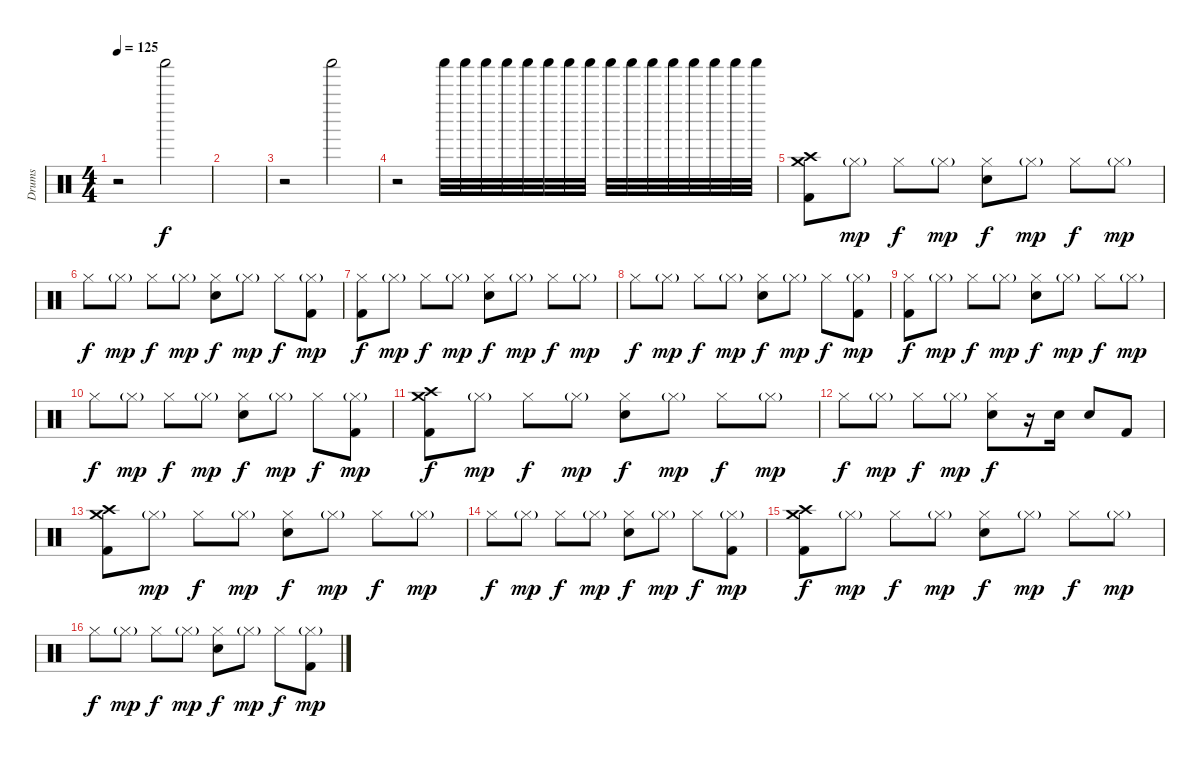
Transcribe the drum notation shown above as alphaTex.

\track ("Drums" "Drums") {instrument percussion}
\staff {score}
\articulation defaults
\ts (4 4)
\tempo 125
\clef neutral
\ks c
r.2{dy f} "Shaker (hit)".2 |
|
r.2 "Shaker (hit)".2 |
r.2 "Shaker (hit)".32 "Shaker (hit)".32 "Shaker (hit)".32 "Shaker (hit)".32 "Shaker (hit)".32 "Shaker (hit)".32 "Shaker (hit)".32 "Shaker (hit)".32 "Shaker (hit)".32 "Shaker (hit)".32 "Shaker (hit)".32 "Shaker (hit)".32 "Shaker (hit)".32 "Shaker (hit)".32 "Shaker (hit)".32 "Shaker (hit)".32 |
("Crash medium (hit)" "Crash high (hit)" "Kick (hit) 2").8 "Hi-Hat (closed)"{g}.8{dy mp} "Hi-Hat (closed)".8{dy f} "Hi-Hat (closed)"{g}.8{dy mp} ("Hi-Hat (closed)" "Electric Snare (hit)").8{dy f} "Hi-Hat (closed)"{g}.8{dy mp} "Hi-Hat (closed)".8{dy f} "Hi-Hat (closed)"{g}.8{dy mp} |
"Hi-Hat (closed)".8{dy f} "Hi-Hat (closed)"{g}.8{dy mp} "Hi-Hat (closed)".8{dy f} "Hi-Hat (closed)"{g}.8{dy mp} ("Hi-Hat (closed)" "Electric Snare (hit)").8{dy f} "Hi-Hat (closed)"{g}.8{dy mp} "Hi-Hat (closed)".8{dy f} ("Hi-Hat (closed)"{g} "Kick (hit) 2").8{dy mp} |
("Hi-Hat (closed)" "Kick (hit) 2").8{dy f} "Hi-Hat (closed)"{g}.8{dy mp} "Hi-Hat (closed)".8{dy f} "Hi-Hat (closed)"{g}.8{dy mp} ("Hi-Hat (closed)" "Electric Snare (hit)").8{dy f} "Hi-Hat (closed)"{g}.8{dy mp} "Hi-Hat (closed)".8{dy f} "Hi-Hat (closed)"{g}.8{dy mp} |
"Hi-Hat (closed)".8{dy f} "Hi-Hat (closed)"{g}.8{dy mp} "Hi-Hat (closed)".8{dy f} "Hi-Hat (closed)"{g}.8{dy mp} ("Hi-Hat (closed)" "Electric Snare (hit)").8{dy f} "Hi-Hat (closed)"{g}.8{dy mp} "Hi-Hat (closed)".8{dy f} ("Hi-Hat (closed)"{g} "Kick (hit) 2").8{dy mp} |
("Hi-Hat (closed)" "Kick (hit) 2").8{dy f} "Hi-Hat (closed)"{g}.8{dy mp} "Hi-Hat (closed)".8{dy f} "Hi-Hat (closed)"{g}.8{dy mp} ("Hi-Hat (closed)" "Electric Snare (hit)").8{dy f} "Hi-Hat (closed)"{g}.8{dy mp} "Hi-Hat (closed)".8{dy f} "Hi-Hat (closed)"{g}.8{dy mp} |
"Hi-Hat (closed)".8{dy f} "Hi-Hat (closed)"{g}.8{dy mp} "Hi-Hat (closed)".8{dy f} "Hi-Hat (closed)"{g}.8{dy mp} ("Hi-Hat (closed)" "Electric Snare (hit)").8{dy f} "Hi-Hat (closed)"{g}.8{dy mp} "Hi-Hat (closed)".8{dy f} ("Hi-Hat (closed)"{g} "Kick (hit) 2").8{dy mp} |
("Crash medium (hit)" "Crash high (hit)" "Kick (hit) 2").8{dy f} "Hi-Hat (closed)"{g}.8{dy mp} "Hi-Hat (closed)".8{dy f} "Hi-Hat (closed)"{g}.8{dy mp} ("Hi-Hat (closed)" "Electric Snare (hit)").8{dy f} "Hi-Hat (closed)"{g}.8{dy mp} "Hi-Hat (closed)".8{dy f} "Hi-Hat (closed)"{g}.8{dy mp} |
"Hi-Hat (closed)".8{dy f} "Hi-Hat (closed)"{g}.8{dy mp} "Hi-Hat (closed)".8{dy f} "Hi-Hat (closed)"{g}.8{dy mp} ("Hi-Hat (closed)" "Electric Snare (hit)").8{dy f} r.16 "Electric Snare (hit)".16 "Electric Snare (hit)".8 "Kick (hit) 2".8 |
("Crash medium (hit)" "Crash high (hit)" "Kick (hit) 2").8 "Hi-Hat (closed)"{g}.8{dy mp} "Hi-Hat (closed)".8{dy f} "Hi-Hat (closed)"{g}.8{dy mp} ("Hi-Hat (closed)" "Electric Snare (hit)").8{dy f} "Hi-Hat (closed)"{g}.8{dy mp} "Hi-Hat (closed)".8{dy f} "Hi-Hat (closed)"{g}.8{dy mp} |
"Hi-Hat (closed)".8{dy f} "Hi-Hat (closed)"{g}.8{dy mp} "Hi-Hat (closed)".8{dy f} "Hi-Hat (closed)"{g}.8{dy mp} ("Hi-Hat (closed)" "Electric Snare (hit)").8{dy f} "Hi-Hat (closed)"{g}.8{dy mp} "Hi-Hat (closed)".8{dy f} ("Hi-Hat (closed)"{g} "Kick (hit) 2").8{dy mp} |
("Crash medium (hit)" "Crash high (hit)" "Kick (hit) 2").8{dy f} "Hi-Hat (closed)"{g}.8{dy mp} "Hi-Hat (closed)".8{dy f} "Hi-Hat (closed)"{g}.8{dy mp} ("Hi-Hat (closed)" "Electric Snare (hit)").8{dy f} "Hi-Hat (closed)"{g}.8{dy mp} "Hi-Hat (closed)".8{dy f} "Hi-Hat (closed)"{g}.8{dy mp} |
"Hi-Hat (closed)".8{dy f} "Hi-Hat (closed)"{g}.8{dy mp} "Hi-Hat (closed)".8{dy f} "Hi-Hat (closed)"{g}.8{dy mp} ("Hi-Hat (closed)" "Electric Snare (hit)").8{dy f} "Hi-Hat (closed)"{g}.8{dy mp} "Hi-Hat (closed)".8{dy f} ("Hi-Hat (closed)"{g} "Kick (hit) 2").8{dy mp}
